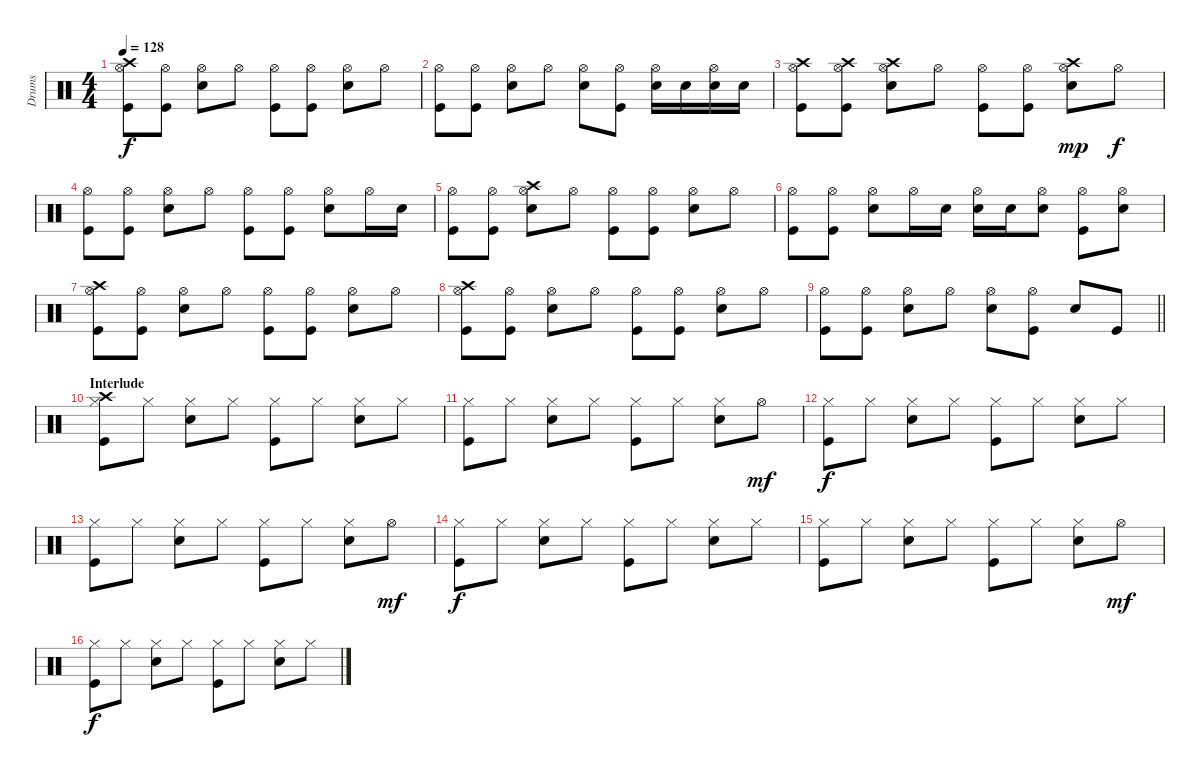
\track ("Drums" "Drums") {instrument percussion}
\staff {score}
\articulation defaults
\ts (4 4)
\tempo 128
\clef neutral
\ks c
("Crash high (hit)" "Hi-Hat (open)" "Kick (hit)").8{dy f} ("Hi-Hat (open)" "Kick (hit)").8 ("Hi-Hat (open)" "Snare (hit) 2").8 "Hi-Hat (open)".8 ("Hi-Hat (open)" "Kick (hit)").8 ("Hi-Hat (open)" "Kick (hit)").8 ("Hi-Hat (open)" "Snare (hit) 2").8 "Hi-Hat (open)".8 |
("Hi-Hat (open)" "Kick (hit)").8 ("Hi-Hat (open)" "Kick (hit)").8 ("Hi-Hat (open)" "Snare (hit) 2").8 "Hi-Hat (open)".8 ("Hi-Hat (open)" "Snare (hit) 2").8 ("Hi-Hat (open)" "Kick (hit)").8 ("Hi-Hat (open)" "Snare (hit) 2").16 "Snare (hit) 2".16 ("Hi-Hat (open)" "Snare (hit) 2").16 "Snare (hit) 2".16 |
("Crash high (hit)" "Hi-Hat (open)" "Kick (hit)").8 ("Crash high (hit)" "Hi-Hat (open)" "Kick (hit)").8 ("Crash high (hit)" "Hi-Hat (open)" "Snare (hit) 2").8 "Hi-Hat (open)".8 ("Hi-Hat (open)" "Kick (hit)").8 ("Hi-Hat (open)" "Kick (hit)").8 ("Crash high (hit)" "Hi-Hat (open)" "Snare (hit) 2").8{dy mp} "Hi-Hat (open)".8{dy f} |
("Hi-Hat (open)" "Kick (hit)").8 ("Hi-Hat (open)" "Kick (hit)").8 ("Hi-Hat (open)" "Snare (hit) 2").8 "Hi-Hat (open)".8 ("Hi-Hat (open)" "Kick (hit)").8 ("Hi-Hat (open)" "Kick (hit)").8 ("Hi-Hat (open)" "Snare (hit) 2").8 "Hi-Hat (open)".16 "Snare (hit) 2".16 |
("Hi-Hat (open)" "Kick (hit)").8 ("Hi-Hat (open)" "Kick (hit)").8 ("Crash high (hit)" "Hi-Hat (open)" "Snare (hit) 2").8 "Hi-Hat (open)".8 ("Hi-Hat (open)" "Kick (hit)").8 ("Hi-Hat (open)" "Kick (hit)").8 ("Hi-Hat (open)" "Snare (hit) 2").8 "Hi-Hat (open)".8 |
("Hi-Hat (open)" "Kick (hit)").8 ("Hi-Hat (open)" "Kick (hit)").8 ("Hi-Hat (open)" "Snare (hit) 2").8 "Hi-Hat (open)".16 "Snare (hit) 2".16 ("Hi-Hat (open)" "Snare (hit) 2").16 "Snare (hit) 2".16 ("Hi-Hat (open)" "Snare (hit) 2").8 ("Hi-Hat (open)" "Kick (hit)").8 ("Hi-Hat (open)" "Snare (hit) 2").8 |
("Crash high (hit)" "Hi-Hat (open)" "Kick (hit)").8 ("Hi-Hat (open)" "Kick (hit)").8 ("Hi-Hat (open)" "Snare (hit) 2").8 "Hi-Hat (open)".8 ("Hi-Hat (open)" "Kick (hit)").8 ("Hi-Hat (open)" "Kick (hit)").8 ("Hi-Hat (open)" "Snare (hit) 2").8 "Hi-Hat (open)".8 |
("Crash high (hit)" "Hi-Hat (open)" "Kick (hit)").8 ("Hi-Hat (open)" "Kick (hit)").8 ("Hi-Hat (open)" "Snare (hit) 2").8 "Hi-Hat (open)".8 ("Hi-Hat (open)" "Kick (hit)").8 ("Hi-Hat (open)" "Kick (hit)").8 ("Hi-Hat (open)" "Snare (hit) 2").8 "Hi-Hat (open)".8 |
\barLineRight lightlight
("Hi-Hat (open)" "Kick (hit)").8 ("Hi-Hat (open)" "Kick (hit)").8 ("Hi-Hat (open)" "Snare (hit) 2").8 "Hi-Hat (open)".8 ("Hi-Hat (open)" "Snare (hit) 2").8 ("Hi-Hat (open)" "Kick (hit)").8 "Snare (hit) 2".8 "Kick (hit)".8 |
\section ("" "Interlude")
("Crash high (hit)" "Hi-Hat (closed)" "Kick (hit)").8 "Hi-Hat (closed)".8 ("Hi-Hat (closed)" "Snare (hit) 2").8 "Hi-Hat (closed)".8 ("Hi-Hat (closed)" "Kick (hit)").8 "Hi-Hat (closed)".8 ("Hi-Hat (closed)" "Snare (hit) 2").8 "Hi-Hat (closed)".8 |
("Hi-Hat (closed)" "Kick (hit)").8 "Hi-Hat (closed)".8 ("Hi-Hat (closed)" "Snare (hit) 2").8 "Hi-Hat (closed)".8 ("Hi-Hat (closed)" "Kick (hit)").8 "Hi-Hat (closed)".8 ("Hi-Hat (closed)" "Snare (hit) 2").8 "Hi-Hat (open)".8{dy mf} |
("Hi-Hat (closed)" "Kick (hit)").8{dy f} "Hi-Hat (closed)".8 ("Hi-Hat (closed)" "Snare (hit) 2").8 "Hi-Hat (closed)".8 ("Hi-Hat (closed)" "Kick (hit)").8 "Hi-Hat (closed)".8 ("Hi-Hat (closed)" "Snare (hit) 2").8 "Hi-Hat (closed)".8 |
("Hi-Hat (closed)" "Kick (hit)").8 "Hi-Hat (closed)".8 ("Hi-Hat (closed)" "Snare (hit) 2").8 "Hi-Hat (closed)".8 ("Hi-Hat (closed)" "Kick (hit)").8 "Hi-Hat (closed)".8 ("Hi-Hat (closed)" "Snare (hit) 2").8 "Hi-Hat (open)".8{dy mf} |
("Hi-Hat (closed)" "Kick (hit)").8{dy f} "Hi-Hat (closed)".8 ("Hi-Hat (closed)" "Snare (hit) 2").8 "Hi-Hat (closed)".8 ("Hi-Hat (closed)" "Kick (hit)").8 "Hi-Hat (closed)".8 ("Hi-Hat (closed)" "Snare (hit) 2").8 "Hi-Hat (closed)".8 |
("Hi-Hat (closed)" "Kick (hit)").8 "Hi-Hat (closed)".8 ("Hi-Hat (closed)" "Snare (hit) 2").8 "Hi-Hat (closed)".8 ("Hi-Hat (closed)" "Kick (hit)").8 "Hi-Hat (closed)".8 ("Hi-Hat (closed)" "Snare (hit) 2").8 "Hi-Hat (open)".8{dy mf} |
("Hi-Hat (closed)" "Kick (hit)").8{dy f} "Hi-Hat (closed)".8 ("Hi-Hat (closed)" "Snare (hit) 2").8 "Hi-Hat (closed)".8 ("Hi-Hat (closed)" "Kick (hit)").8 "Hi-Hat (closed)".8 ("Hi-Hat (closed)" "Snare (hit) 2").8 "Hi-Hat (closed)".8
